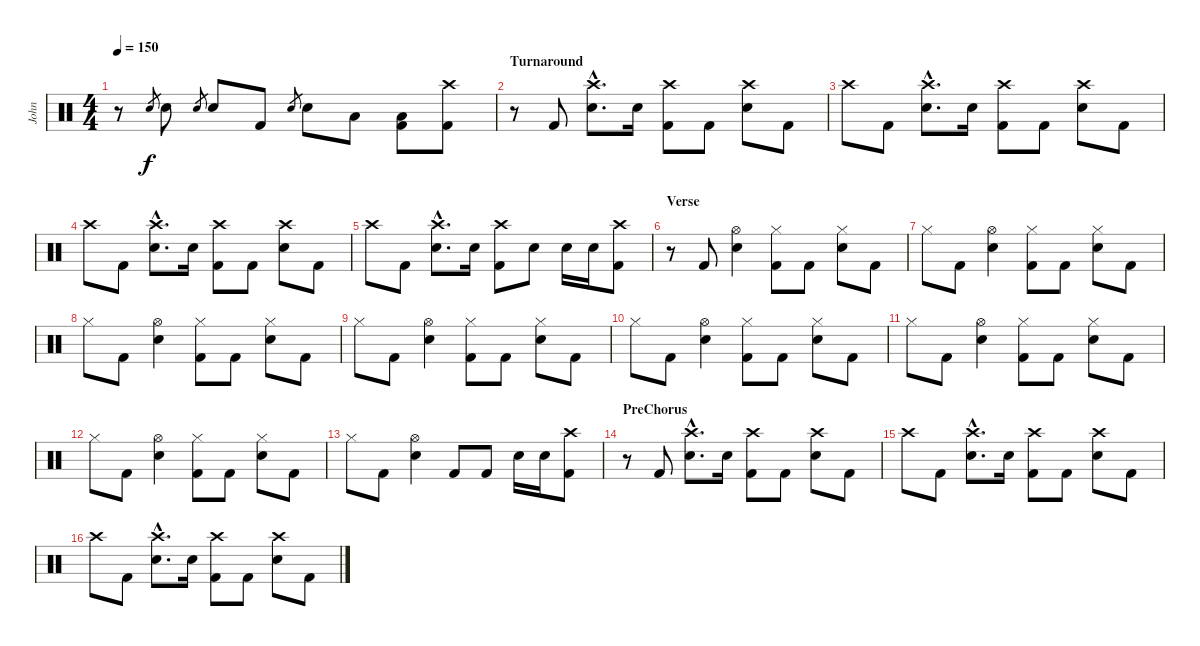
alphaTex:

\track ("John" "John") {instrument percussion}
\staff {score}
\articulation defaults
\ts (4 4)
\tempo 150
\clef neutral
\ks c
r.8{dy f} "Electric Snare (hit)".8{gr} "Electric Snare (hit)".8 "Electric Snare (hit)".8{gr} "Electric Snare (hit)".8 "Kick (hit) 2".8 "Electric Snare (hit)".8{gr} "Electric Snare (hit)".8 "Low Tom (hit)".8 ("Low Floor Tom (hit)" "Kick (hit) 2").8 ("Crash high (hit)" "Kick (hit) 2").8 |
\section ("" "Turnaround")
r.8 "Kick (hit) 2".8 ("Crash high (hit)"{hac} "Electric Snare (hit)"{hac}).8{d} "Electric Snare (hit)".16 ("Crash high (hit)" "Kick (hit) 2").8 "Kick (hit) 2".8 ("Crash high (hit)" "Electric Snare (hit)").8 "Kick (hit) 2".8 |
"Crash high (hit)".8 "Kick (hit) 2".8 ("Crash high (hit)"{hac} "Electric Snare (hit)"{hac}).8{d} "Electric Snare (hit)".16 ("Crash high (hit)" "Kick (hit) 2").8 "Kick (hit) 2".8 ("Crash high (hit)" "Electric Snare (hit)").8 "Kick (hit) 2".8 |
"Crash high (hit)".8 "Kick (hit) 2".8 ("Crash high (hit)"{hac} "Electric Snare (hit)"{hac}).8{d} "Electric Snare (hit)".16 ("Crash high (hit)" "Kick (hit) 2").8 "Kick (hit) 2".8 ("Crash high (hit)" "Electric Snare (hit)").8 "Kick (hit) 2".8 |
"Crash high (hit)".8 "Kick (hit) 2".8 ("Crash high (hit)"{hac} "Electric Snare (hit)"{hac}).8{d} "Electric Snare (hit)".16 ("Crash high (hit)" "Kick (hit) 2").8 "Electric Snare (hit)".8 "Electric Snare (hit)".16 "Electric Snare (hit)".16 ("Crash high (hit)" "Kick (hit) 2").8 |
\section ("" "Verse")
r.8 "Kick (hit) 2".8 ("Hi-Hat (open)" "Electric Snare (hit)").4 ("Hi-Hat (closed)" "Kick (hit) 2").8 "Kick (hit) 2".8 ("Hi-Hat (closed)" "Electric Snare (hit)").8 "Kick (hit) 2".8 |
"Hi-Hat (closed)".8 "Kick (hit) 2".8 ("Hi-Hat (open)" "Electric Snare (hit)").4 ("Hi-Hat (closed)" "Kick (hit) 2").8 "Kick (hit) 2".8 ("Hi-Hat (closed)" "Electric Snare (hit)").8 "Kick (hit) 2".8 |
"Hi-Hat (closed)".8 "Kick (hit) 2".8 ("Hi-Hat (open)" "Electric Snare (hit)").4 ("Hi-Hat (closed)" "Kick (hit) 2").8 "Kick (hit) 2".8 ("Hi-Hat (closed)" "Electric Snare (hit)").8 "Kick (hit) 2".8 |
"Hi-Hat (closed)".8 "Kick (hit) 2".8 ("Hi-Hat (open)" "Electric Snare (hit)").4 ("Hi-Hat (closed)" "Kick (hit) 2").8 "Kick (hit) 2".8 ("Hi-Hat (closed)" "Electric Snare (hit)").8 "Kick (hit) 2".8 |
"Hi-Hat (closed)".8 "Kick (hit) 2".8 ("Hi-Hat (open)" "Electric Snare (hit)").4 ("Hi-Hat (closed)" "Kick (hit) 2").8 "Kick (hit) 2".8 ("Hi-Hat (closed)" "Electric Snare (hit)").8 "Kick (hit) 2".8 |
"Hi-Hat (closed)".8 "Kick (hit) 2".8 ("Hi-Hat (open)" "Electric Snare (hit)").4 ("Hi-Hat (closed)" "Kick (hit) 2").8 "Kick (hit) 2".8 ("Hi-Hat (closed)" "Electric Snare (hit)").8 "Kick (hit) 2".8 |
"Hi-Hat (closed)".8 "Kick (hit) 2".8 ("Hi-Hat (open)" "Electric Snare (hit)").4 ("Hi-Hat (closed)" "Kick (hit) 2").8 "Kick (hit) 2".8 ("Hi-Hat (closed)" "Electric Snare (hit)").8 "Kick (hit) 2".8 |
"Hi-Hat (closed)".8 "Kick (hit) 2".8 ("Hi-Hat (open)" "Electric Snare (hit)").4 "Kick (hit) 2".8 "Kick (hit) 2".8 "Electric Snare (hit)".16 "Electric Snare (hit)".16 ("Crash high (hit)" "Kick (hit) 2").8 |
\section ("" "PreChorus")
r.8 "Kick (hit) 2".8 ("Crash high (hit)"{hac} "Electric Snare (hit)"{hac}).8{d} "Electric Snare (hit)".16 ("Crash high (hit)" "Kick (hit) 2").8 "Kick (hit) 2".8 ("Crash high (hit)" "Electric Snare (hit)").8 "Kick (hit) 2".8 |
"Crash high (hit)".8 "Kick (hit) 2".8 ("Crash high (hit)"{hac} "Electric Snare (hit)"{hac}).8{d} "Electric Snare (hit)".16 ("Crash high (hit)" "Kick (hit) 2").8 "Kick (hit) 2".8 ("Crash high (hit)" "Electric Snare (hit)").8 "Kick (hit) 2".8 |
"Crash high (hit)".8 "Kick (hit) 2".8 ("Crash high (hit)"{hac} "Electric Snare (hit)"{hac}).8{d} "Electric Snare (hit)".16 ("Crash high (hit)" "Kick (hit) 2").8 "Kick (hit) 2".8 ("Crash high (hit)" "Electric Snare (hit)").8 "Kick (hit) 2".8
